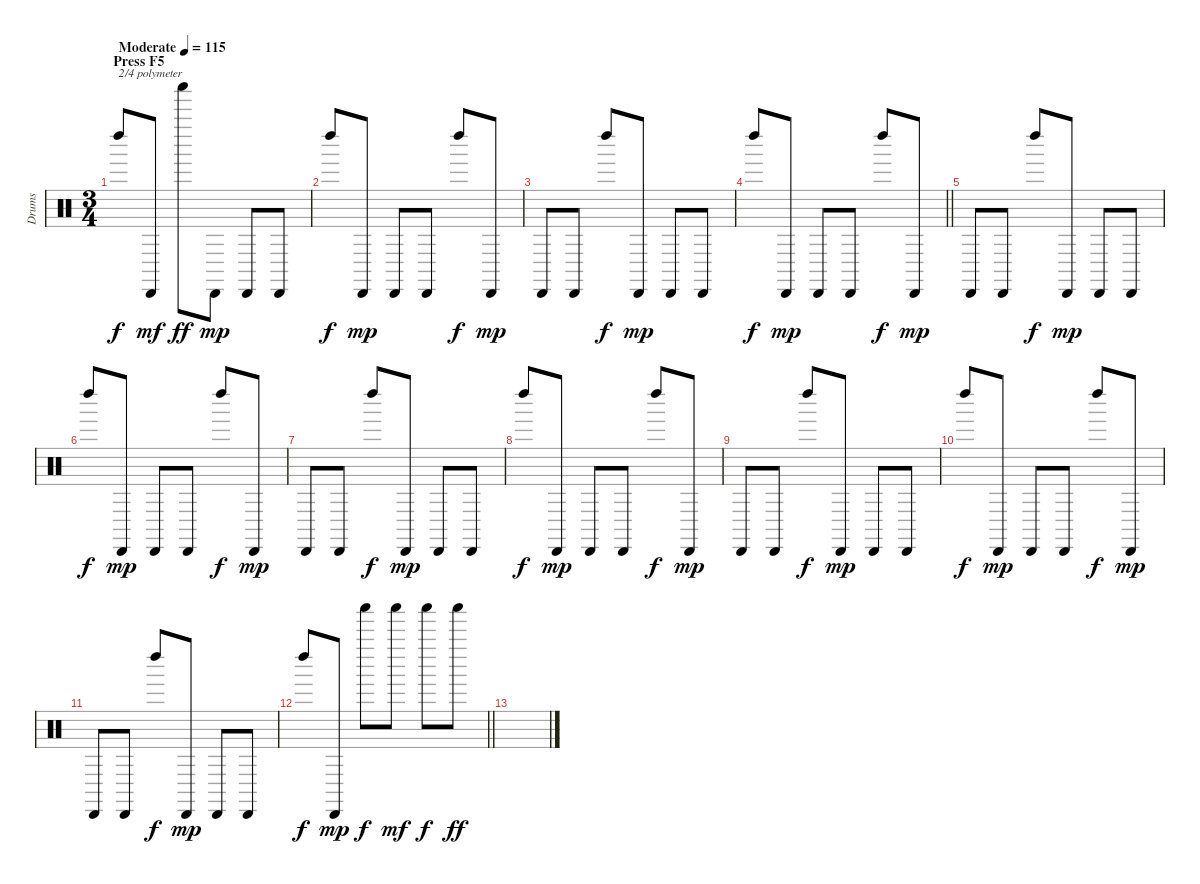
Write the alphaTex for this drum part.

\track ("Drums" "Drums") {instrument percussion}
\staff {score}
\articulation defaults
\ts (3 4)
\section ("" "Press F5")
\tempo (115 "Moderate")
\clef neutral
\ks c "Left Maraca (hit)".8{txt "2/4 polymeter" dy f} "Cabasa (hit)".8{dy mf} "Shaker (hit)".8{dy ff} "Cabasa (hit)".8{dy mp} "Cabasa (hit)".8 "Cabasa (hit)".8
|
"Left Maraca (hit)".8{dy f} "Cabasa (hit)".8{dy mp} "Cabasa (hit)".8 "Cabasa (hit)".8 "Left Maraca (hit)".8{dy f} "Cabasa (hit)".8{dy mp} |
"Cabasa (hit)".8 "Cabasa (hit)".8 "Left Maraca (hit)".8{dy f} "Cabasa (hit)".8{dy mp} "Cabasa (hit)".8 "Cabasa (hit)".8 |
\barLineRight lightlight "Left Maraca (hit)".8{dy f} "Cabasa (hit)".8{dy mp} "Cabasa (hit)".8 "Cabasa (hit)".8 "Left Maraca (hit)".8{dy f} "Cabasa (hit)".8{dy mp}
|
\section ("" "")
"Cabasa (hit)".8 "Cabasa (hit)".8 "Left Maraca (hit)".8{dy f} "Cabasa (hit)".8{dy mp} "Cabasa (hit)".8 "Cabasa (hit)".8 |
"Left Maraca (hit)".8{dy f} "Cabasa (hit)".8{dy mp} "Cabasa (hit)".8 "Cabasa (hit)".8 "Left Maraca (hit)".8{dy f} "Cabasa (hit)".8{dy mp} |
"Cabasa (hit)".8 "Cabasa (hit)".8 "Left Maraca (hit)".8{dy f} "Cabasa (hit)".8{dy mp} "Cabasa (hit)".8 "Cabasa (hit)".8 |
"Left Maraca (hit)".8{dy f} "Cabasa (hit)".8{dy mp} "Cabasa (hit)".8 "Cabasa (hit)".8 "Left Maraca (hit)".8{dy f} "Cabasa (hit)".8{dy mp} |
"Cabasa (hit)".8 "Cabasa (hit)".8 "Left Maraca (hit)".8{dy f} "Cabasa (hit)".8{dy mp} "Cabasa (hit)".8 "Cabasa (hit)".8 |
"Left Maraca (hit)".8{dy f} "Cabasa (hit)".8{dy mp} "Cabasa (hit)".8 "Cabasa (hit)".8 "Left Maraca (hit)".8{dy f} "Cabasa (hit)".8{dy mp} |
"Cabasa (hit)".8 "Cabasa (hit)".8 "Left Maraca (hit)".8{dy f} "Cabasa (hit)".8{dy mp} "Cabasa (hit)".8 "Cabasa (hit)".8 |
\barLineRight lightlight "Left Maraca (hit)".8{dy f} "Cabasa (hit)".8{dy mp} "Shaker (hit)".8{dy f} "Shaker (hit)".8{dy mf} "Shaker (hit)".8{dy f} "Shaker (hit)".8{dy ff}
|
\section ("" "")
